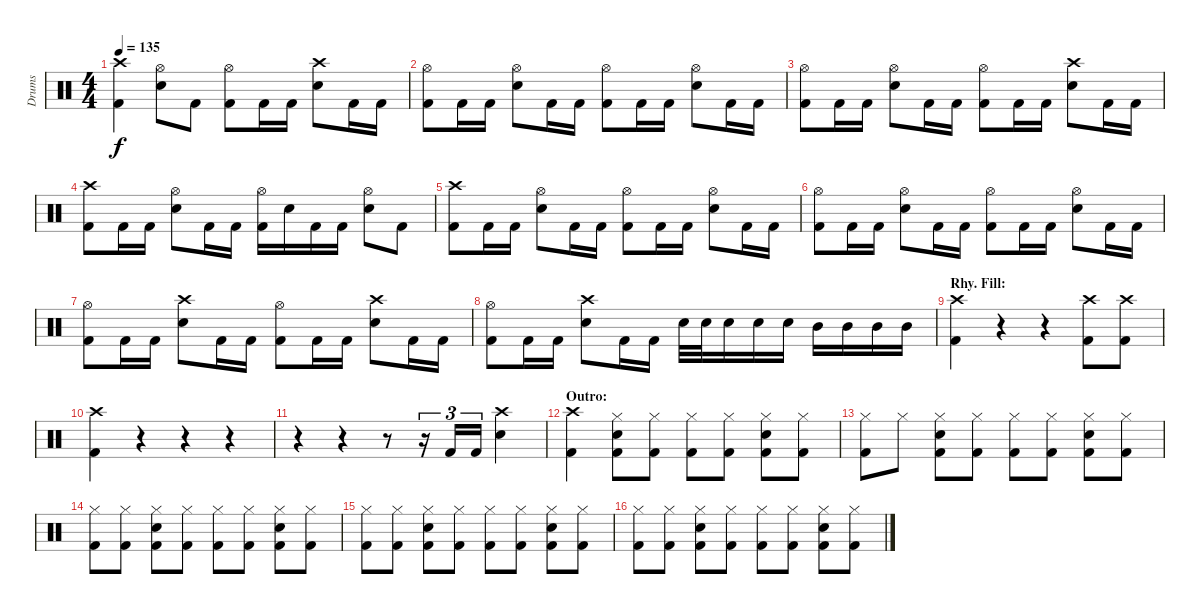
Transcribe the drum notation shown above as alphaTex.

\track ("Drums" "Drums") {instrument percussion}
\staff {score}
\articulation defaults
\ts (4 4)
\tempo 135
\clef neutral
\ks c
("Crash high (hit)" "Kick (hit) 2").4{dy f} ("Hi-Hat (open)" "Electric Snare (hit)").8 "Kick (hit) 2".8 ("Hi-Hat (open)" "Kick (hit) 2").8 "Kick (hit) 2".16 "Kick (hit) 2".16 ("Crash high (hit)" "Electric Snare (hit)").8 "Kick (hit) 2".16 "Kick (hit) 2".16 |
("Hi-Hat (open)" "Kick (hit) 2").8 "Kick (hit) 2".16 "Kick (hit) 2".16 ("Hi-Hat (open)" "Electric Snare (hit)").8 "Kick (hit) 2".16 "Kick (hit) 2".16 ("Hi-Hat (open)" "Kick (hit) 2").8 "Kick (hit) 2".16 "Kick (hit) 2".16 ("Hi-Hat (open)" "Electric Snare (hit)").8 "Kick (hit) 2".16 "Kick (hit) 2".16 |
("Hi-Hat (open)" "Kick (hit) 2").8 "Kick (hit) 2".16 "Kick (hit) 2".16 ("Hi-Hat (open)" "Electric Snare (hit)").8 "Kick (hit) 2".16 "Kick (hit) 2".16 ("Hi-Hat (open)" "Kick (hit) 2").8 "Kick (hit) 2".16 "Kick (hit) 2".16 ("Crash high (hit)" "Electric Snare (hit)").8 "Kick (hit) 2".16 "Kick (hit) 2".16 |
("Crash high (hit)" "Kick (hit) 2").8 "Kick (hit) 2".16 "Kick (hit) 2".16 ("Hi-Hat (open)" "Electric Snare (hit)").8 "Kick (hit) 2".16 "Kick (hit) 2".16 ("Hi-Hat (open)" "Kick (hit) 2").16 "Electric Snare (hit)".16 "Kick (hit) 2".16 "Kick (hit) 2".16 ("Hi-Hat (open)" "Electric Snare (hit)").8 "Kick (hit) 2".8 |
("Crash high (hit)" "Kick (hit) 2").8 "Kick (hit) 2".16 "Kick (hit) 2".16 ("Hi-Hat (open)" "Electric Snare (hit)").8 "Kick (hit) 2".16 "Kick (hit) 2".16 ("Hi-Hat (open)" "Kick (hit) 2").8 "Kick (hit) 2".16 "Kick (hit) 2".16 ("Hi-Hat (open)" "Electric Snare (hit)").8 "Kick (hit) 2".16 "Kick (hit) 2".16 |
("Hi-Hat (open)" "Kick (hit) 2").8 "Kick (hit) 2".16 "Kick (hit) 2".16 ("Hi-Hat (open)" "Electric Snare (hit)").8 "Kick (hit) 2".16 "Kick (hit) 2".16 ("Hi-Hat (open)" "Kick (hit) 2").8 "Kick (hit) 2".16 "Kick (hit) 2".16 ("Hi-Hat (open)" "Electric Snare (hit)").8 "Kick (hit) 2".16 "Kick (hit) 2".16 |
("Hi-Hat (open)" "Kick (hit) 2").8 "Kick (hit) 2".16 "Kick (hit) 2".16 ("Crash high (hit)" "Electric Snare (hit)").8 "Kick (hit) 2".16 "Kick (hit) 2".16 ("Hi-Hat (open)" "Kick (hit) 2").8 "Kick (hit) 2".16 "Kick (hit) 2".16 ("Crash high (hit)" "Electric Snare (hit)").8 "Kick (hit) 2".16 "Kick (hit) 2".16 |
("Hi-Hat (open)" "Kick (hit) 2").8 "Kick (hit) 2".16 "Kick (hit) 2".16 ("Crash high (hit)" "Electric Snare (hit)").8 "Kick (hit) 2".16 "Kick (hit) 2".16 "Electric Snare (hit)".32 "Electric Snare (hit)".32 "Electric Snare (hit)".16 "Electric Snare (hit)".16 "Electric Snare (hit)".16 "Mid Tom (hit)".16 "Mid Tom (hit)".16 "Mid Tom (hit)".16 "Mid Tom (hit)".16 |
\section ("" "Rhy. Fill:")
("Crash high (hit)" "Kick (hit) 2").4 r.4 r.4 ("Crash high (hit)" "Kick (hit) 2").8 ("Crash high (hit)" "Kick (hit) 2").8 |
("Crash high (hit)" "Kick (hit) 2").4 r.4 r.4 r.4 |
r.4 r.4 r.8 r.16{tu (3 2)} "Kick (hit) 2".16{tu (3 2)} "Kick (hit) 2".16{tu (3 2)} ("Crash high (hit)" "Electric Snare (hit)").4 |
\section ("" "Outro:")
("Crash high (hit)" "Kick (hit) 2").4 ("Hi-Hat (closed)" "Electric Snare (hit)" "Kick (hit) 2").8 ("Hi-Hat (closed)" "Kick (hit) 2").8 ("Hi-Hat (closed)" "Kick (hit) 2").8 ("Hi-Hat (closed)" "Kick (hit) 2").8 ("Hi-Hat (closed)" "Electric Snare (hit)" "Kick (hit) 2").8 ("Hi-Hat (closed)" "Kick (hit) 2").8 |
("Hi-Hat (closed)" "Kick (hit) 2").8 "Hi-Hat (closed)".8 ("Hi-Hat (closed)" "Electric Snare (hit)" "Kick (hit) 2").8 ("Hi-Hat (closed)" "Kick (hit) 2").8 ("Hi-Hat (closed)" "Kick (hit) 2").8 ("Hi-Hat (closed)" "Kick (hit) 2").8 ("Hi-Hat (closed)" "Electric Snare (hit)" "Kick (hit) 2").8 ("Hi-Hat (closed)" "Kick (hit) 2").8 |
("Hi-Hat (closed)" "Kick (hit) 2").8 ("Hi-Hat (closed)" "Kick (hit) 2").8 ("Hi-Hat (closed)" "Electric Snare (hit)" "Kick (hit) 2").8 ("Hi-Hat (closed)" "Kick (hit) 2").8 ("Hi-Hat (closed)" "Kick (hit) 2").8 ("Hi-Hat (closed)" "Kick (hit) 2").8 ("Hi-Hat (closed)" "Electric Snare (hit)" "Kick (hit) 2").8 ("Hi-Hat (closed)" "Kick (hit) 2").8 |
("Hi-Hat (closed)" "Kick (hit) 2").8 ("Hi-Hat (closed)" "Kick (hit) 2").8 ("Hi-Hat (closed)" "Electric Snare (hit)" "Kick (hit) 2").8 ("Hi-Hat (closed)" "Kick (hit) 2").8 ("Hi-Hat (closed)" "Kick (hit) 2").8 ("Hi-Hat (closed)" "Kick (hit) 2").8 ("Hi-Hat (closed)" "Electric Snare (hit)" "Kick (hit) 2").8 ("Hi-Hat (closed)" "Kick (hit) 2").8 |
("Hi-Hat (closed)" "Kick (hit) 2").8 ("Hi-Hat (closed)" "Kick (hit) 2").8 ("Hi-Hat (closed)" "Electric Snare (hit)" "Kick (hit) 2").8 ("Hi-Hat (closed)" "Kick (hit) 2").8 ("Hi-Hat (closed)" "Kick (hit) 2").8 ("Hi-Hat (closed)" "Kick (hit) 2").8 ("Hi-Hat (closed)" "Electric Snare (hit)" "Kick (hit) 2").8 ("Hi-Hat (closed)" "Kick (hit) 2").8
